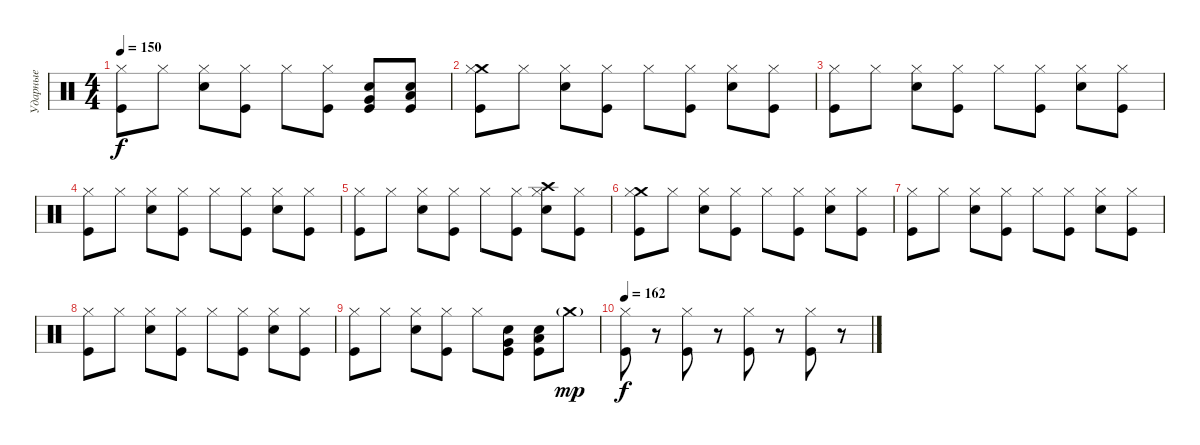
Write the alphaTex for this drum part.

\track ("Ударные" "Ударные") {instrument percussion}
\staff {score}
\articulation defaults
\ts (4 4)
\tempo 150
\clef neutral
\ks c
("Hi-Hat (closed)" "Kick (hit)").8{dy f} "Hi-Hat (closed)".8 ("Hi-Hat (closed)" "Electric Snare (hit)").8 ("Hi-Hat (closed)" "Kick (hit)").8 "Hi-Hat (closed)".8 ("Hi-Hat (closed)" "Kick (hit)").8 ("Very Low Tom (hit)" "Electric Snare (hit)" "Kick (hit)").8 ("Low Floor Tom (hit)" "Electric Snare (hit)" "Kick (hit)").8 |
("Crash medium (hit)" "Hi-Hat (closed)" "Kick (hit)").8 "Hi-Hat (closed)".8 ("Hi-Hat (closed)" "Electric Snare (hit)").8 ("Hi-Hat (closed)" "Kick (hit)").8 "Hi-Hat (closed)".8 ("Hi-Hat (closed)" "Kick (hit)").8 ("Hi-Hat (closed)" "Electric Snare (hit)").8 ("Hi-Hat (closed)" "Kick (hit)").8 |
("Hi-Hat (closed)" "Kick (hit)").8 "Hi-Hat (closed)".8 ("Hi-Hat (closed)" "Electric Snare (hit)").8 ("Hi-Hat (closed)" "Kick (hit)").8 "Hi-Hat (closed)".8 ("Hi-Hat (closed)" "Kick (hit)").8 ("Hi-Hat (closed)" "Electric Snare (hit)").8 ("Hi-Hat (closed)" "Kick (hit)").8 |
("Hi-Hat (closed)" "Kick (hit)").8 "Hi-Hat (closed)".8 ("Hi-Hat (closed)" "Electric Snare (hit)").8 ("Hi-Hat (closed)" "Kick (hit)").8 "Hi-Hat (closed)".8 ("Hi-Hat (closed)" "Kick (hit)").8 ("Hi-Hat (closed)" "Electric Snare (hit)").8 ("Hi-Hat (closed)" "Kick (hit)").8 |
("Hi-Hat (closed)" "Kick (hit)").8 "Hi-Hat (closed)".8 ("Hi-Hat (closed)" "Electric Snare (hit)").8 ("Hi-Hat (closed)" "Kick (hit)").8 "Hi-Hat (closed)".8 ("Hi-Hat (closed)" "Kick (hit)").8 ("Crash high (hit)" "Hi-Hat (closed)" "Electric Snare (hit)").8 ("Hi-Hat (closed)" "Kick (hit)").8 |
("Crash medium (hit)" "Hi-Hat (closed)" "Kick (hit)").8 "Hi-Hat (closed)".8 ("Hi-Hat (closed)" "Electric Snare (hit)").8 ("Hi-Hat (closed)" "Kick (hit)").8 "Hi-Hat (closed)".8 ("Hi-Hat (closed)" "Kick (hit)").8 ("Hi-Hat (closed)" "Electric Snare (hit)").8 ("Hi-Hat (closed)" "Kick (hit)").8 |
("Hi-Hat (closed)" "Kick (hit)").8 "Hi-Hat (closed)".8 ("Hi-Hat (closed)" "Electric Snare (hit)").8 ("Hi-Hat (closed)" "Kick (hit)").8 "Hi-Hat (closed)".8 ("Hi-Hat (closed)" "Kick (hit)").8 ("Hi-Hat (closed)" "Electric Snare (hit)").8 ("Hi-Hat (closed)" "Kick (hit)").8 |
("Hi-Hat (closed)" "Kick (hit)").8 "Hi-Hat (closed)".8 ("Hi-Hat (closed)" "Electric Snare (hit)").8 ("Hi-Hat (closed)" "Kick (hit)").8 "Hi-Hat (closed)".8 ("Hi-Hat (closed)" "Kick (hit)").8 ("Hi-Hat (closed)" "Electric Snare (hit)").8 ("Hi-Hat (closed)" "Kick (hit)").8 |
("Hi-Hat (closed)" "Kick (hit)").8 "Hi-Hat (closed)".8 ("Hi-Hat (closed)" "Electric Snare (hit)").8 ("Hi-Hat (closed)" "Kick (hit)").8 "Hi-Hat (closed)".8 ("Very Low Tom (hit)" "Electric Snare (hit)" "Kick (hit)").8 ("Low Floor Tom (hit)" "Electric Snare (hit)" "Kick (hit)").8 "Crash medium (hit)"{g}.8{dy mp} |
\tempo 162
("Hi-Hat (closed)" "Kick (hit)").8{dy f} r.8 ("Hi-Hat (closed)" "Kick (hit)").8 r.8 ("Hi-Hat (closed)" "Kick (hit)").8 r.8 ("Hi-Hat (closed)" "Kick (hit)").8 r.8
